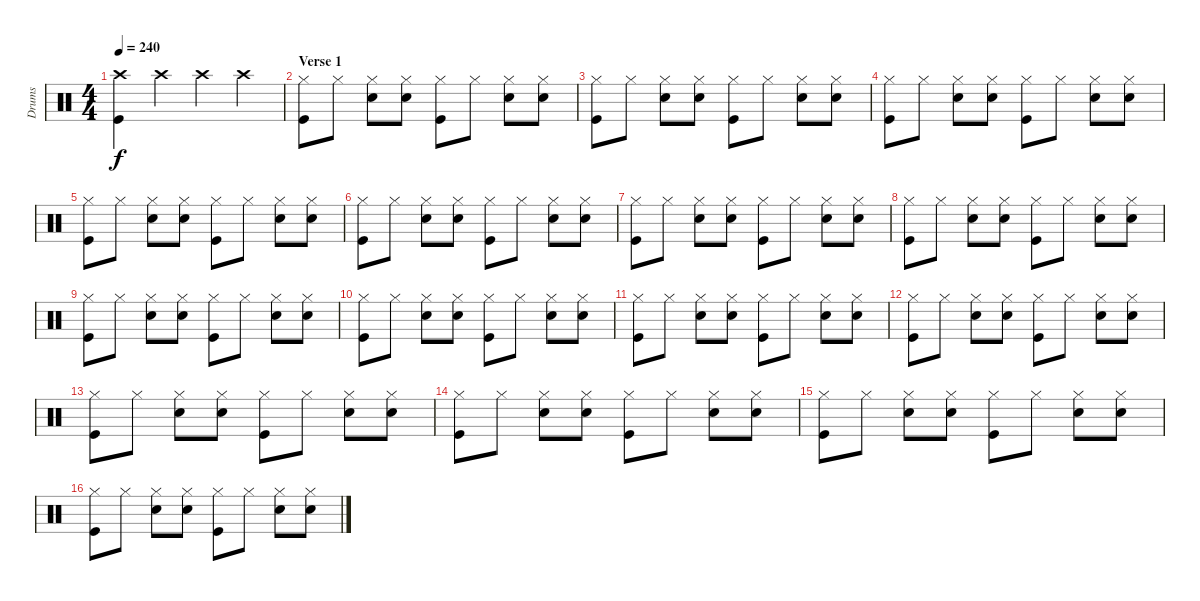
\track ("Drums" "Drums") {instrument percussion}
\staff {score}
\articulation defaults
\ts (4 4)
\tempo 240
\clef neutral
\ks c
("Kick (hit)" "Crash high (hit)").4{dy f} "Crash high (hit)".4 "Crash high (hit)".4 "Crash high (hit)".4 |
\section ("" "Verse 1")
("Kick (hit)" "Hi-Hat (closed)").8 "Hi-Hat (closed)".8 ("Snare (hit) 2" "Hi-Hat (closed)").8 ("Snare (hit) 2" "Hi-Hat (closed)").8 ("Kick (hit)" "Hi-Hat (closed)").8 "Hi-Hat (closed)".8 ("Snare (hit) 2" "Hi-Hat (closed)").8 ("Snare (hit) 2" "Hi-Hat (closed)").8 |
("Kick (hit)" "Hi-Hat (closed)").8 "Hi-Hat (closed)".8 ("Snare (hit) 2" "Hi-Hat (closed)").8 ("Snare (hit) 2" "Hi-Hat (closed)").8 ("Kick (hit)" "Hi-Hat (closed)").8 "Hi-Hat (closed)".8 ("Snare (hit) 2" "Hi-Hat (closed)").8 ("Snare (hit) 2" "Hi-Hat (closed)").8 |
("Kick (hit)" "Hi-Hat (closed)").8 "Hi-Hat (closed)".8 ("Snare (hit) 2" "Hi-Hat (closed)").8 ("Snare (hit) 2" "Hi-Hat (closed)").8 ("Kick (hit)" "Hi-Hat (closed)").8 "Hi-Hat (closed)".8 ("Snare (hit) 2" "Hi-Hat (closed)").8 ("Snare (hit) 2" "Hi-Hat (closed)").8 |
("Kick (hit)" "Hi-Hat (closed)").8 "Hi-Hat (closed)".8 ("Snare (hit) 2" "Hi-Hat (closed)").8 ("Snare (hit) 2" "Hi-Hat (closed)").8 ("Kick (hit)" "Hi-Hat (closed)").8 "Hi-Hat (closed)".8 ("Snare (hit) 2" "Hi-Hat (closed)").8 ("Snare (hit) 2" "Hi-Hat (closed)").8 |
("Kick (hit)" "Hi-Hat (closed)").8 "Hi-Hat (closed)".8 ("Snare (hit) 2" "Hi-Hat (closed)").8 ("Snare (hit) 2" "Hi-Hat (closed)").8 ("Kick (hit)" "Hi-Hat (closed)").8 "Hi-Hat (closed)".8 ("Snare (hit) 2" "Hi-Hat (closed)").8 ("Snare (hit) 2" "Hi-Hat (closed)").8 |
("Kick (hit)" "Hi-Hat (closed)").8 "Hi-Hat (closed)".8 ("Snare (hit) 2" "Hi-Hat (closed)").8 ("Snare (hit) 2" "Hi-Hat (closed)").8 ("Kick (hit)" "Hi-Hat (closed)").8 "Hi-Hat (closed)".8 ("Snare (hit) 2" "Hi-Hat (closed)").8 ("Snare (hit) 2" "Hi-Hat (closed)").8 |
("Kick (hit)" "Hi-Hat (closed)").8 "Hi-Hat (closed)".8 ("Snare (hit) 2" "Hi-Hat (closed)").8 ("Snare (hit) 2" "Hi-Hat (closed)").8 ("Kick (hit)" "Hi-Hat (closed)").8 "Hi-Hat (closed)".8 ("Snare (hit) 2" "Hi-Hat (closed)").8 ("Snare (hit) 2" "Hi-Hat (closed)").8 |
("Kick (hit)" "Hi-Hat (closed)").8 "Hi-Hat (closed)".8 ("Snare (hit) 2" "Hi-Hat (closed)").8 ("Snare (hit) 2" "Hi-Hat (closed)").8 ("Kick (hit)" "Hi-Hat (closed)").8 "Hi-Hat (closed)".8 ("Snare (hit) 2" "Hi-Hat (closed)").8 ("Snare (hit) 2" "Hi-Hat (closed)").8 |
("Kick (hit)" "Hi-Hat (closed)").8 "Hi-Hat (closed)".8 ("Snare (hit) 2" "Hi-Hat (closed)").8 ("Snare (hit) 2" "Hi-Hat (closed)").8 ("Kick (hit)" "Hi-Hat (closed)").8 "Hi-Hat (closed)".8 ("Snare (hit) 2" "Hi-Hat (closed)").8 ("Snare (hit) 2" "Hi-Hat (closed)").8 |
("Kick (hit)" "Hi-Hat (closed)").8 "Hi-Hat (closed)".8 ("Snare (hit) 2" "Hi-Hat (closed)").8 ("Snare (hit) 2" "Hi-Hat (closed)").8 ("Kick (hit)" "Hi-Hat (closed)").8 "Hi-Hat (closed)".8 ("Snare (hit) 2" "Hi-Hat (closed)").8 ("Snare (hit) 2" "Hi-Hat (closed)").8 |
("Kick (hit)" "Hi-Hat (closed)").8 "Hi-Hat (closed)".8 ("Snare (hit) 2" "Hi-Hat (closed)").8 ("Snare (hit) 2" "Hi-Hat (closed)").8 ("Kick (hit)" "Hi-Hat (closed)").8 "Hi-Hat (closed)".8 ("Snare (hit) 2" "Hi-Hat (closed)").8 ("Snare (hit) 2" "Hi-Hat (closed)").8 |
("Kick (hit)" "Hi-Hat (closed)").8 "Hi-Hat (closed)".8 ("Snare (hit) 2" "Hi-Hat (closed)").8 ("Snare (hit) 2" "Hi-Hat (closed)").8 ("Kick (hit)" "Hi-Hat (closed)").8 "Hi-Hat (closed)".8 ("Snare (hit) 2" "Hi-Hat (closed)").8 ("Snare (hit) 2" "Hi-Hat (closed)").8 |
("Kick (hit)" "Hi-Hat (closed)").8 "Hi-Hat (closed)".8 ("Snare (hit) 2" "Hi-Hat (closed)").8 ("Snare (hit) 2" "Hi-Hat (closed)").8 ("Kick (hit)" "Hi-Hat (closed)").8 "Hi-Hat (closed)".8 ("Snare (hit) 2" "Hi-Hat (closed)").8 ("Snare (hit) 2" "Hi-Hat (closed)").8 |
("Kick (hit)" "Hi-Hat (closed)").8 "Hi-Hat (closed)".8 ("Snare (hit) 2" "Hi-Hat (closed)").8 ("Snare (hit) 2" "Hi-Hat (closed)").8 ("Kick (hit)" "Hi-Hat (closed)").8 "Hi-Hat (closed)".8 ("Snare (hit) 2" "Hi-Hat (closed)").8 ("Snare (hit) 2" "Hi-Hat (closed)").8 |
("Kick (hit)" "Hi-Hat (closed)").8 "Hi-Hat (closed)".8 ("Snare (hit) 2" "Hi-Hat (closed)").8 ("Snare (hit) 2" "Hi-Hat (closed)").8 ("Kick (hit)" "Hi-Hat (closed)").8 "Hi-Hat (closed)".8 ("Snare (hit) 2" "Hi-Hat (closed)").8 ("Snare (hit) 2" "Hi-Hat (closed)").8
